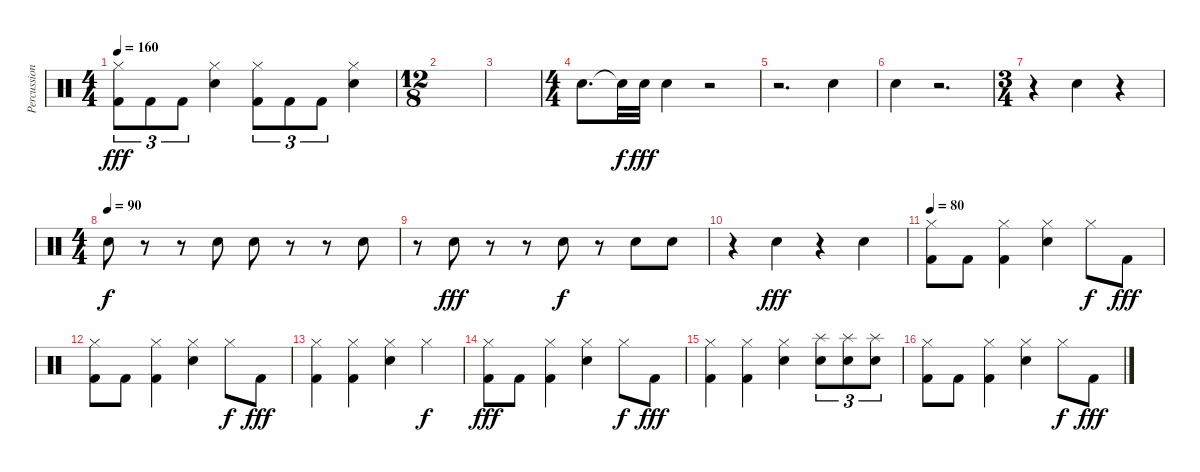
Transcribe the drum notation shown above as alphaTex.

\track ("Percussion" "Percussion") {instrument percussion}
\staff {score}
\articulation defaults
\ts (4 4)
\tempo 160
\clef neutral
\ks c
("Kick (hit) 2" "Hi-Hat (closed)").8{tu (3 2) dy fff} "Kick (hit) 2".8{tu (3 2)} "Kick (hit) 2".8{tu (3 2)} ("Electric Snare (hit)" "Hi-Hat (closed)").4 ("Kick (hit) 2" "Hi-Hat (closed)").8{tu (3 2)} "Kick (hit) 2".8{tu (3 2)} "Kick (hit) 2".8{tu (3 2)} ("Electric Snare (hit)" "Hi-Hat (closed)").4 |
\ts (12 8)
|
|
\ts (4 4)
"Electric Snare (hit)".8{d} "Snare (hit)"{t}.32{dy f} "Electric Snare (hit)".32{dy fff} "Electric Snare (hit)".4 r.2 |
r.2{d} "Electric Snare (hit)".4 |
"Electric Snare (hit)".4 r.2{d} |
\ts (3 4)
r.4 "Electric Snare (hit)".4 r.4 |
\ts (4 4)
\tempo (90)
"Electric Snare (hit)".8{dy f} r.8 r.8 "Electric Snare (hit)".8 "Electric Snare (hit)".8 r.8 r.8 "Electric Snare (hit)".8 |
r.8 "Electric Snare (hit)".8{dy fff} r.8 r.8 "Electric Snare (hit)".8{dy f} r.8 "Electric Snare (hit)".8 "Electric Snare (hit)".8 |
r.4 "Electric Snare (hit)".4{dy fff} r.4 "Electric Snare (hit)".4 |
\tempo 80
("Kick (hit) 2" "Hi-Hat (closed)").8 "Kick (hit) 2".8 ("Kick (hit) 2" "Hi-Hat (closed)").4 ("Electric Snare (hit)" "Hi-Hat (closed)").4 "Hi-Hat (closed)".8{dy f} "Kick (hit) 2".8{dy fff} |
("Kick (hit) 2" "Hi-Hat (closed)").8 "Kick (hit) 2".8 ("Kick (hit) 2" "Hi-Hat (closed)").4 ("Electric Snare (hit)" "Hi-Hat (closed)").4 "Hi-Hat (closed)".8{dy f} "Kick (hit) 2".8{dy fff} |
("Kick (hit) 2" "Hi-Hat (closed)").4 ("Kick (hit) 2" "Hi-Hat (closed)").4 ("Electric Snare (hit)" "Hi-Hat (closed)").4 "Hi-Hat (closed)".4{dy f} |
("Kick (hit) 2" "Hi-Hat (closed)").8{dy fff} "Kick (hit) 2".8 ("Kick (hit) 2" "Hi-Hat (closed)").4 ("Electric Snare (hit)" "Hi-Hat (closed)").4 "Hi-Hat (closed)".8{dy f} "Kick (hit) 2".8{dy fff} |
("Kick (hit) 2" "Hi-Hat (closed)").4 ("Kick (hit) 2" "Hi-Hat (closed)").4 ("Electric Snare (hit)" "Hi-Hat (closed)").4 ("Electric Snare (hit)" "Splash (hit)").8{tu (3 2)} ("Electric Snare (hit)" "Splash (hit)").8{tu (3 2)} ("Electric Snare (hit)" "Splash (hit)").8{tu (3 2)} |
("Kick (hit) 2" "Hi-Hat (closed)").8 "Kick (hit) 2".8 ("Kick (hit) 2" "Hi-Hat (closed)").4 ("Electric Snare (hit)" "Hi-Hat (closed)").4 "Hi-Hat (closed)".8{dy f} "Kick (hit) 2".8{dy fff}
